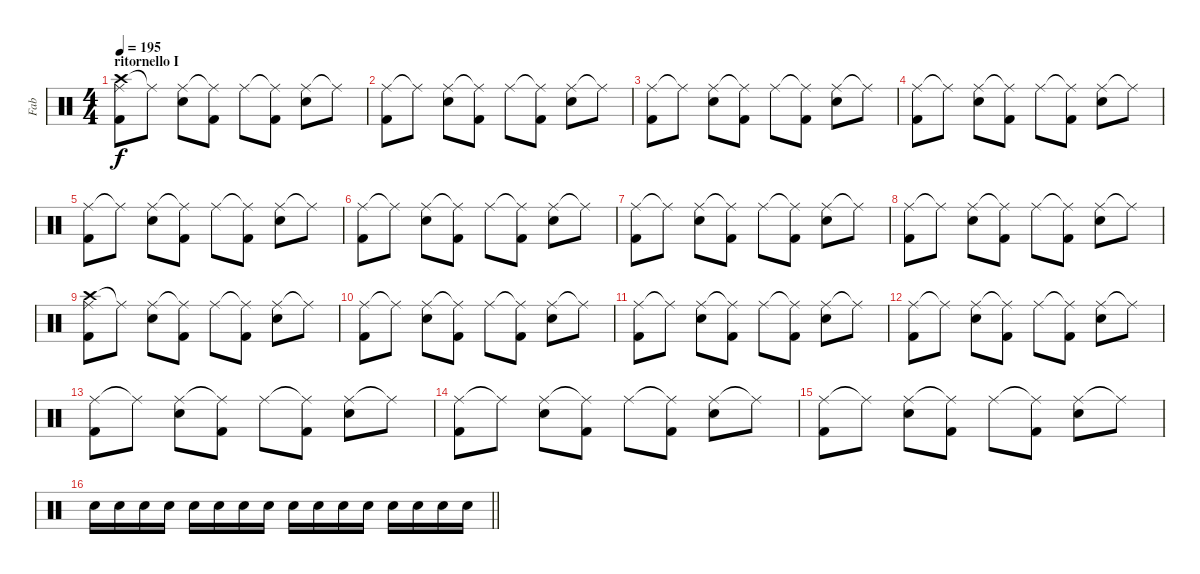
\track ("Fab" "Fab") {instrument percussion}
\staff {score}
\articulation defaults
\ts (4 4)
\section ("" "ritornello I")
\tempo 195
\clef neutral
\ks c
("Crash high (hit)" "Ride (middle)" "Kick (hit) 2").8{dy f} "Ride (middle)"{t}.8 ("Ride (middle)" "Electric Snare (hit)").8 ("Ride (middle)"{t} "Kick (hit) 2").8 "Ride (middle)".8 ("Ride (middle)"{t} "Kick (hit) 2").8 ("Ride (middle)" "Electric Snare (hit)").8 "Ride (middle)"{t}.8 |
("Ride (middle)" "Kick (hit) 2").8 "Ride (middle)"{t}.8 ("Ride (middle)" "Electric Snare (hit)").8 ("Ride (middle)"{t} "Kick (hit) 2").8 "Ride (middle)".8 ("Ride (middle)"{t} "Kick (hit) 2").8 ("Ride (middle)" "Electric Snare (hit)").8 "Ride (middle)"{t}.8 |
("Ride (middle)" "Kick (hit) 2").8 "Ride (middle)"{t}.8 ("Ride (middle)" "Electric Snare (hit)").8 ("Ride (middle)"{t} "Kick (hit) 2").8 "Ride (middle)".8 ("Ride (middle)"{t} "Kick (hit) 2").8 ("Ride (middle)" "Electric Snare (hit)").8 "Ride (middle)"{t}.8 |
("Ride (middle)" "Kick (hit) 2").8 "Ride (middle)"{t}.8 ("Ride (middle)" "Electric Snare (hit)").8 ("Ride (middle)"{t} "Kick (hit) 2").8 "Ride (middle)".8 ("Ride (middle)"{t} "Kick (hit) 2").8 ("Ride (middle)" "Electric Snare (hit)").8 "Ride (middle)"{t}.8 |
("Ride (middle)" "Kick (hit) 2").8 "Ride (middle)"{t}.8 ("Ride (middle)" "Electric Snare (hit)").8 ("Ride (middle)"{t} "Kick (hit) 2").8 "Ride (middle)".8 ("Ride (middle)"{t} "Kick (hit) 2").8 ("Ride (middle)" "Electric Snare (hit)").8 "Ride (middle)"{t}.8 |
("Ride (middle)" "Kick (hit) 2").8 "Ride (middle)"{t}.8 ("Ride (middle)" "Electric Snare (hit)").8 ("Ride (middle)"{t} "Kick (hit) 2").8 "Ride (middle)".8 ("Ride (middle)"{t} "Kick (hit) 2").8 ("Ride (middle)" "Electric Snare (hit)").8 "Ride (middle)"{t}.8 |
("Ride (middle)" "Kick (hit) 2").8 "Ride (middle)"{t}.8 ("Ride (middle)" "Electric Snare (hit)").8 ("Ride (middle)"{t} "Kick (hit) 2").8 "Ride (middle)".8 ("Ride (middle)"{t} "Kick (hit) 2").8 ("Ride (middle)" "Electric Snare (hit)").8 "Ride (middle)"{t}.8 |
("Ride (middle)" "Kick (hit) 2").8 "Ride (middle)"{t}.8 ("Ride (middle)" "Electric Snare (hit)").8 ("Ride (middle)"{t} "Kick (hit) 2").8 "Ride (middle)".8 ("Ride (middle)"{t} "Kick (hit) 2").8 ("Ride (middle)" "Electric Snare (hit)").8 "Ride (middle)"{t}.8 |
("Crash high (hit)" "Ride (middle)" "Kick (hit) 2").8 "Ride (middle)"{t}.8 ("Ride (middle)" "Electric Snare (hit)").8 ("Ride (middle)"{t} "Kick (hit) 2").8 "Ride (middle)".8 ("Ride (middle)"{t} "Kick (hit) 2").8 ("Ride (middle)" "Electric Snare (hit)").8 "Ride (middle)"{t}.8 |
("Ride (middle)" "Kick (hit) 2").8 "Ride (middle)"{t}.8 ("Ride (middle)" "Electric Snare (hit)").8 ("Ride (middle)"{t} "Kick (hit) 2").8 "Ride (middle)".8 ("Ride (middle)"{t} "Kick (hit) 2").8 ("Ride (middle)" "Electric Snare (hit)").8 "Ride (middle)"{t}.8 |
("Ride (middle)" "Kick (hit) 2").8 "Ride (middle)"{t}.8 ("Ride (middle)" "Electric Snare (hit)").8 ("Ride (middle)"{t} "Kick (hit) 2").8 "Ride (middle)".8 ("Ride (middle)"{t} "Kick (hit) 2").8 ("Ride (middle)" "Electric Snare (hit)").8 "Ride (middle)"{t}.8 |
("Ride (middle)" "Kick (hit) 2").8 "Ride (middle)"{t}.8 ("Ride (middle)" "Electric Snare (hit)").8 ("Ride (middle)"{t} "Kick (hit) 2").8 "Ride (middle)".8 ("Ride (middle)"{t} "Kick (hit) 2").8 ("Ride (middle)" "Electric Snare (hit)").8 "Ride (middle)"{t}.8 |
("Ride (middle)" "Kick (hit) 2").8 "Ride (middle)"{t}.8 ("Ride (middle)" "Electric Snare (hit)").8 ("Ride (middle)"{t} "Kick (hit) 2").8 "Ride (middle)".8 ("Ride (middle)"{t} "Kick (hit) 2").8 ("Ride (middle)" "Electric Snare (hit)").8 "Ride (middle)"{t}.8 |
("Ride (middle)" "Kick (hit) 2").8 "Ride (middle)"{t}.8 ("Ride (middle)" "Electric Snare (hit)").8 ("Ride (middle)"{t} "Kick (hit) 2").8 "Ride (middle)".8 ("Ride (middle)"{t} "Kick (hit) 2").8 ("Ride (middle)" "Electric Snare (hit)").8 "Ride (middle)"{t}.8 |
("Ride (middle)" "Kick (hit) 2").8 "Ride (middle)"{t}.8 ("Ride (middle)" "Electric Snare (hit)").8 ("Ride (middle)"{t} "Kick (hit) 2").8 "Ride (middle)".8 ("Ride (middle)"{t} "Kick (hit) 2").8 ("Ride (middle)" "Electric Snare (hit)").8 "Ride (middle)"{t}.8 |
\barLineRight lightlight "Electric Snare (hit)".16 "Electric Snare (hit)".16 "Electric Snare (hit)".16 "Electric Snare (hit)".16 "Electric Snare (hit)".16 "Electric Snare (hit)".16 "Electric Snare (hit)".16 "Electric Snare (hit)".16 "Electric Snare (hit)".16 "Electric Snare (hit)".16 "Electric Snare (hit)".16 "Electric Snare (hit)".16 "Electric Snare (hit)".16 "Electric Snare (hit)".16 "Electric Snare (hit)".16 "Electric Snare (hit)".16
